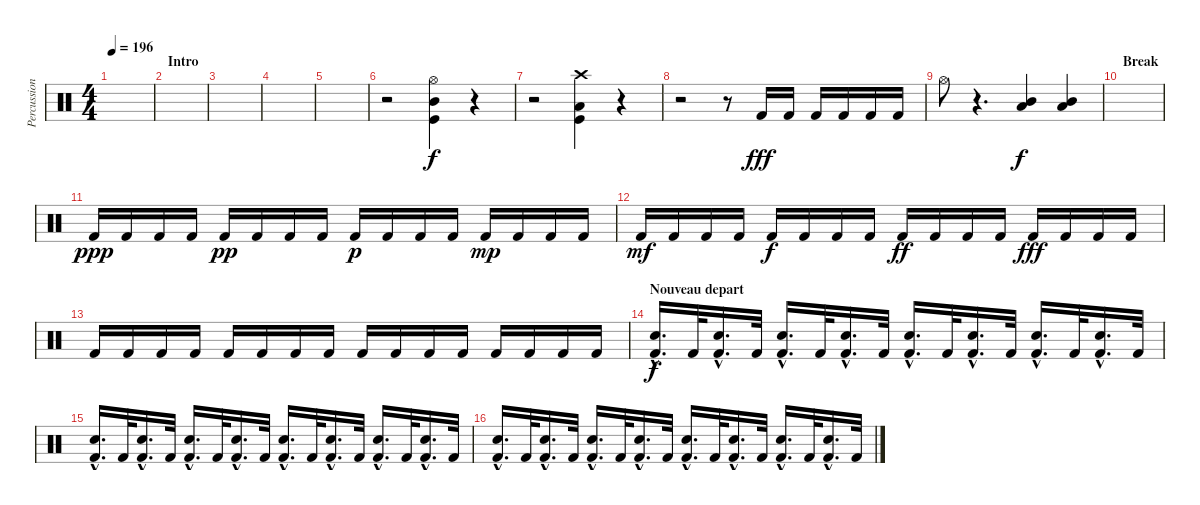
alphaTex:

\track ("Percussions" "Percussion") {instrument percussion}
\staff {score}
\articulation defaults
\ts (4 4)
\tempo 196
\clef neutral
\ks c
|
\section ("" "Intro")
|
|
|
|
r.2 ("Kick (hit)" "Mid Tom (hit)" "Hi-Hat (open)").4 r.4 |
r.2 ("Kick (hit)" "Low Tom (hit)" "Crash high (hit)").4 r.4 |
r.2 r.8 "Kick (hit) 2".16{dy fff} "Kick (hit) 2".16 "Kick (hit) 2".16 "Kick (hit) 2".16 "Kick (hit) 2".16 "Kick (hit) 2".16 |
"Hi-Hat (open)".8 r.4{d} ("Low Tom (hit)" "Mid Tom (hit)").4{dy f} ("Mid Tom (hit)" "Low Tom (hit)").4 |
\section ("" "Break")
|
"Kick (hit) 2".16{dy ppp} "Kick (hit) 2".16 "Kick (hit) 2".16 "Kick (hit) 2".16 "Kick (hit) 2".16{dy pp} "Kick (hit) 2".16 "Kick (hit) 2".16 "Kick (hit) 2".16 "Kick (hit) 2".16{dy p} "Kick (hit) 2".16 "Kick (hit) 2".16 "Kick (hit) 2".16 "Kick (hit) 2".16{dy mp} "Kick (hit) 2".16 "Kick (hit) 2".16 "Kick (hit) 2".16 |
"Kick (hit) 2".16{dy mf} "Kick (hit) 2".16 "Kick (hit) 2".16 "Kick (hit) 2".16 "Kick (hit) 2".16{dy f} "Kick (hit) 2".16 "Kick (hit) 2".16 "Kick (hit) 2".16 "Kick (hit) 2".16{dy ff} "Kick (hit) 2".16 "Kick (hit) 2".16 "Kick (hit) 2".16 "Kick (hit) 2".16{dy fff} "Kick (hit) 2".16 "Kick (hit) 2".16 "Kick (hit) 2".16 |
"Kick (hit) 2".16 "Kick (hit) 2".16 "Kick (hit) 2".16 "Kick (hit) 2".16 "Kick (hit) 2".16 "Kick (hit) 2".16 "Kick (hit) 2".16 "Kick (hit) 2".16 "Kick (hit) 2".16 "Kick (hit) 2".16 "Kick (hit) 2".16 "Kick (hit) 2".16 "Kick (hit) 2".16 "Kick (hit) 2".16 "Kick (hit) 2".16 "Kick (hit) 2".16 |
\section ("" "Nouveau depart")
("Snare (hit) 2"{hac} "Kick (hit) 2"{hac}).16{d dy f} "Kick (hit) 2".32 ("Snare (hit) 2"{hac} "Kick (hit) 2"{hac}).16{d} "Kick (hit) 2".32 ("Snare (hit) 2"{hac} "Kick (hit) 2"{hac}).16{d} "Kick (hit) 2".32 ("Snare (hit) 2"{hac} "Kick (hit) 2"{hac}).16{d} "Kick (hit) 2".32 ("Snare (hit) 2"{hac} "Kick (hit) 2"{hac}).16{d} "Kick (hit) 2".32 ("Snare (hit) 2"{hac} "Kick (hit) 2"{hac}).16{d} "Kick (hit) 2".32 ("Snare (hit) 2"{hac} "Kick (hit) 2"{hac}).16{d} "Kick (hit) 2".32 ("Snare (hit) 2"{hac} "Kick (hit) 2"{hac}).16{d} "Kick (hit) 2".32 |
("Snare (hit) 2"{hac} "Kick (hit) 2"{hac}).16{d} "Kick (hit) 2".32 ("Snare (hit) 2"{hac} "Kick (hit) 2"{hac}).16{d} "Kick (hit) 2".32 ("Snare (hit) 2"{hac} "Kick (hit) 2"{hac}).16{d} "Kick (hit) 2".32 ("Snare (hit) 2"{hac} "Kick (hit) 2"{hac}).16{d} "Kick (hit) 2".32 ("Snare (hit) 2"{hac} "Kick (hit) 2"{hac}).16{d} "Kick (hit) 2".32 ("Snare (hit) 2"{hac} "Kick (hit) 2"{hac}).16{d} "Kick (hit) 2".32 ("Snare (hit) 2"{hac} "Kick (hit) 2"{hac}).16{d} "Kick (hit) 2".32 ("Snare (hit) 2"{hac} "Kick (hit) 2"{hac}).16{d} "Kick (hit) 2".32 |
("Snare (hit) 2"{hac} "Kick (hit) 2"{hac}).16{d} "Kick (hit) 2".32 ("Snare (hit) 2"{hac} "Kick (hit) 2"{hac}).16{d} "Kick (hit) 2".32 ("Snare (hit) 2"{hac} "Kick (hit) 2"{hac}).16{d} "Kick (hit) 2".32 ("Snare (hit) 2"{hac} "Kick (hit) 2"{hac}).16{d} "Kick (hit) 2".32 ("Snare (hit) 2"{hac} "Kick (hit) 2"{hac}).16{d} "Kick (hit) 2".32 ("Snare (hit) 2"{hac} "Kick (hit) 2"{hac}).16{d} "Kick (hit) 2".32 ("Snare (hit) 2"{hac} "Kick (hit) 2"{hac}).16{d} "Kick (hit) 2".32 ("Snare (hit) 2"{hac} "Kick (hit) 2"{hac}).16{d} "Kick (hit) 2".32
